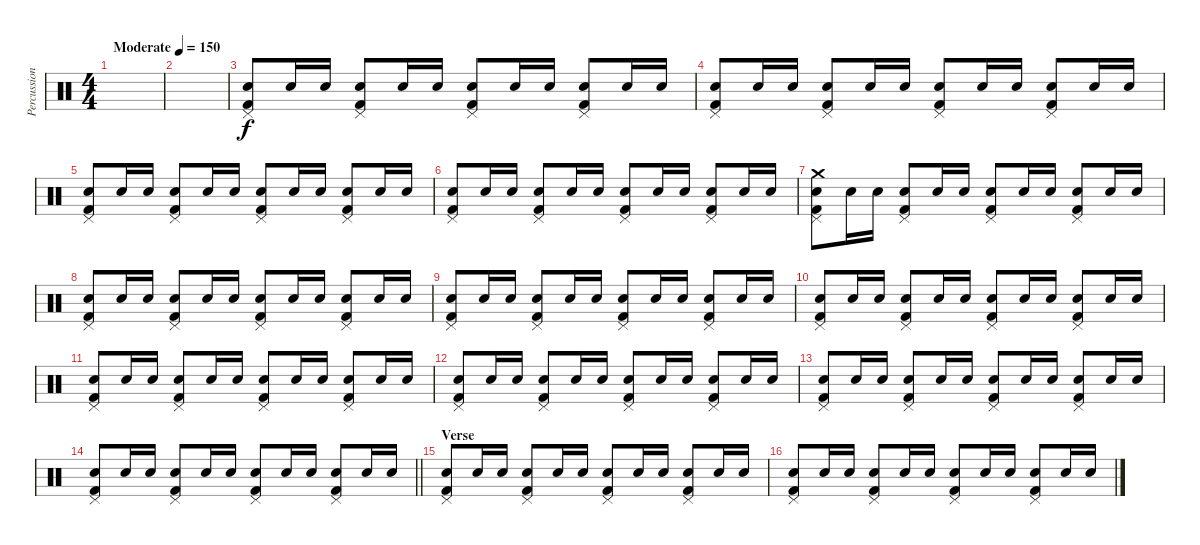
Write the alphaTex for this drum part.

\track ("Percussion" "Percussion") {instrument percussion}
\staff {score}
\articulation defaults
\ts (4 4)
\tempo (150 "Moderate")
\clef neutral
\ks c
|
|
("Snare (hit) 2" "Pedal Hi-Hat (hit)" "Kick (hit) 2").8 "Snare (hit) 2".16 "Snare (hit) 2".16 ("Snare (hit) 2" "Pedal Hi-Hat (hit)" "Kick (hit) 2").8 "Snare (hit) 2".16 "Snare (hit) 2".16 ("Snare (hit) 2" "Pedal Hi-Hat (hit)" "Kick (hit) 2").8 "Snare (hit) 2".16 "Snare (hit) 2".16 ("Snare (hit) 2" "Pedal Hi-Hat (hit)" "Kick (hit) 2").8 "Snare (hit) 2".16 "Snare (hit) 2".16 |
("Snare (hit) 2" "Pedal Hi-Hat (hit)" "Kick (hit) 2").8 "Snare (hit) 2".16 "Snare (hit) 2".16 ("Snare (hit) 2" "Pedal Hi-Hat (hit)" "Kick (hit) 2").8 "Snare (hit) 2".16 "Snare (hit) 2".16 ("Snare (hit) 2" "Pedal Hi-Hat (hit)" "Kick (hit) 2").8 "Snare (hit) 2".16 "Snare (hit) 2".16 ("Snare (hit) 2" "Pedal Hi-Hat (hit)" "Kick (hit) 2").8 "Snare (hit) 2".16 "Snare (hit) 2".16 |
("Snare (hit) 2" "Pedal Hi-Hat (hit)" "Kick (hit) 2").8 "Snare (hit) 2".16 "Snare (hit) 2".16 ("Snare (hit) 2" "Pedal Hi-Hat (hit)" "Kick (hit) 2").8 "Snare (hit) 2".16 "Snare (hit) 2".16 ("Snare (hit) 2" "Pedal Hi-Hat (hit)" "Kick (hit) 2").8 "Snare (hit) 2".16 "Snare (hit) 2".16 ("Snare (hit) 2" "Pedal Hi-Hat (hit)" "Kick (hit) 2").8 "Snare (hit) 2".16 "Snare (hit) 2".16 |
("Snare (hit) 2" "Pedal Hi-Hat (hit)" "Kick (hit) 2").8 "Snare (hit) 2".16 "Snare (hit) 2".16 ("Snare (hit) 2" "Pedal Hi-Hat (hit)" "Kick (hit) 2").8 "Snare (hit) 2".16 "Snare (hit) 2".16 ("Snare (hit) 2" "Pedal Hi-Hat (hit)" "Kick (hit) 2").8 "Snare (hit) 2".16 "Snare (hit) 2".16 ("Snare (hit) 2" "Pedal Hi-Hat (hit)" "Kick (hit) 2").8 "Snare (hit) 2".16 "Snare (hit) 2".16 |
("Snare (hit) 2" "Crash medium (hit)" "Pedal Hi-Hat (hit)" "Kick (hit) 2").8 "Snare (hit) 2".16 "Snare (hit) 2".16 ("Snare (hit) 2" "Pedal Hi-Hat (hit)" "Kick (hit) 2").8 "Snare (hit) 2".16 "Snare (hit) 2".16 ("Snare (hit) 2" "Pedal Hi-Hat (hit)" "Kick (hit) 2").8 "Snare (hit) 2".16 "Snare (hit) 2".16 ("Snare (hit) 2" "Pedal Hi-Hat (hit)" "Kick (hit) 2").8 "Snare (hit) 2".16 "Snare (hit) 2".16 |
("Snare (hit) 2" "Pedal Hi-Hat (hit)" "Kick (hit) 2").8 "Snare (hit) 2".16 "Snare (hit) 2".16 ("Snare (hit) 2" "Pedal Hi-Hat (hit)" "Kick (hit) 2").8 "Snare (hit) 2".16 "Snare (hit) 2".16 ("Snare (hit) 2" "Pedal Hi-Hat (hit)" "Kick (hit) 2").8 "Snare (hit) 2".16 "Snare (hit) 2".16 ("Snare (hit) 2" "Pedal Hi-Hat (hit)" "Kick (hit) 2").8 "Snare (hit) 2".16 "Snare (hit) 2".16 |
("Snare (hit) 2" "Pedal Hi-Hat (hit)" "Kick (hit) 2").8 "Snare (hit) 2".16 "Snare (hit) 2".16 ("Snare (hit) 2" "Pedal Hi-Hat (hit)" "Kick (hit) 2").8 "Snare (hit) 2".16 "Snare (hit) 2".16 ("Snare (hit) 2" "Pedal Hi-Hat (hit)" "Kick (hit) 2").8 "Snare (hit) 2".16 "Snare (hit) 2".16 ("Snare (hit) 2" "Pedal Hi-Hat (hit)" "Kick (hit) 2").8 "Snare (hit) 2".16 "Snare (hit) 2".16 |
("Snare (hit) 2" "Pedal Hi-Hat (hit)" "Kick (hit) 2").8 "Snare (hit) 2".16 "Snare (hit) 2".16 ("Snare (hit) 2" "Pedal Hi-Hat (hit)" "Kick (hit) 2").8 "Snare (hit) 2".16 "Snare (hit) 2".16 ("Snare (hit) 2" "Pedal Hi-Hat (hit)" "Kick (hit) 2").8 "Snare (hit) 2".16 "Snare (hit) 2".16 ("Snare (hit) 2" "Pedal Hi-Hat (hit)" "Kick (hit) 2").8 "Snare (hit) 2".16 "Snare (hit) 2".16 |
("Snare (hit) 2" "Pedal Hi-Hat (hit)" "Kick (hit) 2").8 "Snare (hit) 2".16 "Snare (hit) 2".16 ("Snare (hit) 2" "Pedal Hi-Hat (hit)" "Kick (hit) 2").8 "Snare (hit) 2".16 "Snare (hit) 2".16 ("Snare (hit) 2" "Pedal Hi-Hat (hit)" "Kick (hit) 2").8 "Snare (hit) 2".16 "Snare (hit) 2".16 ("Snare (hit) 2" "Pedal Hi-Hat (hit)" "Kick (hit) 2").8 "Snare (hit) 2".16 "Snare (hit) 2".16 |
("Snare (hit) 2" "Pedal Hi-Hat (hit)" "Kick (hit) 2").8 "Snare (hit) 2".16 "Snare (hit) 2".16 ("Snare (hit) 2" "Pedal Hi-Hat (hit)" "Kick (hit) 2").8 "Snare (hit) 2".16 "Snare (hit) 2".16 ("Snare (hit) 2" "Pedal Hi-Hat (hit)" "Kick (hit) 2").8 "Snare (hit) 2".16 "Snare (hit) 2".16 ("Snare (hit) 2" "Pedal Hi-Hat (hit)" "Kick (hit) 2").8 "Snare (hit) 2".16 "Snare (hit) 2".16 |
("Snare (hit) 2" "Pedal Hi-Hat (hit)" "Kick (hit) 2").8 "Snare (hit) 2".16 "Snare (hit) 2".16 ("Snare (hit) 2" "Pedal Hi-Hat (hit)" "Kick (hit) 2").8 "Snare (hit) 2".16 "Snare (hit) 2".16 ("Snare (hit) 2" "Pedal Hi-Hat (hit)" "Kick (hit) 2").8 "Snare (hit) 2".16 "Snare (hit) 2".16 ("Snare (hit) 2" "Pedal Hi-Hat (hit)" "Kick (hit) 2").8 "Snare (hit) 2".16 "Snare (hit) 2".16 |
\barLineRight lightlight
("Snare (hit) 2" "Pedal Hi-Hat (hit)" "Kick (hit) 2").8 "Snare (hit) 2".16 "Snare (hit) 2".16 ("Snare (hit) 2" "Pedal Hi-Hat (hit)" "Kick (hit) 2").8 "Snare (hit) 2".16 "Snare (hit) 2".16 ("Snare (hit) 2" "Pedal Hi-Hat (hit)" "Kick (hit) 2").8 "Snare (hit) 2".16 "Snare (hit) 2".16 ("Snare (hit) 2" "Pedal Hi-Hat (hit)" "Kick (hit) 2").8 "Snare (hit) 2".16 "Snare (hit) 2".16 |
\section ("" "Verse")
("Snare (hit) 2" "Pedal Hi-Hat (hit)" "Kick (hit) 2").8 "Snare (hit) 2".16 "Snare (hit) 2".16 ("Snare (hit) 2" "Pedal Hi-Hat (hit)" "Kick (hit) 2").8 "Snare (hit) 2".16 "Snare (hit) 2".16 ("Snare (hit) 2" "Pedal Hi-Hat (hit)" "Kick (hit) 2").8 "Snare (hit) 2".16 "Snare (hit) 2".16 ("Snare (hit) 2" "Pedal Hi-Hat (hit)" "Kick (hit) 2").8 "Snare (hit) 2".16 "Snare (hit) 2".16 |
("Snare (hit) 2" "Pedal Hi-Hat (hit)" "Kick (hit) 2").8 "Snare (hit) 2".16 "Snare (hit) 2".16 ("Snare (hit) 2" "Pedal Hi-Hat (hit)" "Kick (hit) 2").8 "Snare (hit) 2".16 "Snare (hit) 2".16 ("Snare (hit) 2" "Pedal Hi-Hat (hit)" "Kick (hit) 2").8 "Snare (hit) 2".16 "Snare (hit) 2".16 ("Snare (hit) 2" "Pedal Hi-Hat (hit)" "Kick (hit) 2").8 "Snare (hit) 2".16 "Snare (hit) 2".16
